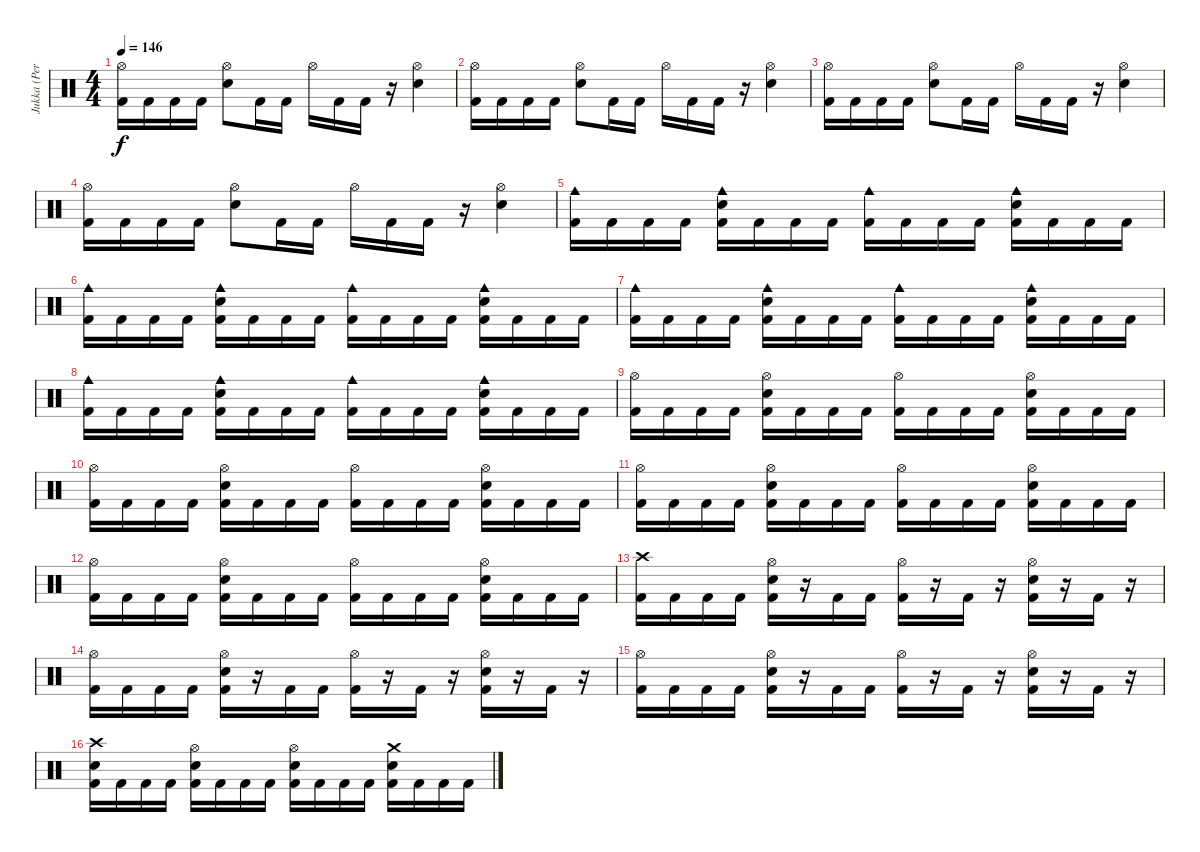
\track ("Jukka (Percussion)" "Jukka (Per") {instrument percussion}
\staff {score}
\articulation defaults
\ts (4 4)
\tempo 146
\clef neutral
\ks c
("Hi-Hat (open)" "Kick (hit) 2").16{dy f} "Kick (hit) 2".16 "Kick (hit) 2".16 "Kick (hit) 2".16 ("Hi-Hat (open)" "Snare (hit) 2").8 "Kick (hit) 2".16 "Kick (hit) 2".16 "Hi-Hat (open)".16 "Kick (hit) 2".16 "Kick (hit) 2".16 r.16 ("Hi-Hat (open)" "Snare (hit) 2").4 |
("Hi-Hat (open)" "Kick (hit) 2").16 "Kick (hit) 2".16 "Kick (hit) 2".16 "Kick (hit) 2".16 ("Hi-Hat (open)" "Snare (hit) 2").8 "Kick (hit) 2".16 "Kick (hit) 2".16 "Hi-Hat (open)".16 "Kick (hit) 2".16 "Kick (hit) 2".16 r.16 ("Hi-Hat (open)" "Snare (hit) 2").4 |
("Hi-Hat (open)" "Kick (hit) 2").16 "Kick (hit) 2".16 "Kick (hit) 2".16 "Kick (hit) 2".16 ("Hi-Hat (open)" "Snare (hit) 2").8 "Kick (hit) 2".16 "Kick (hit) 2".16 "Hi-Hat (open)".16 "Kick (hit) 2".16 "Kick (hit) 2".16 r.16 ("Hi-Hat (open)" "Snare (hit) 2").4 |
("Hi-Hat (open)" "Kick (hit) 2").16 "Kick (hit) 2".16 "Kick (hit) 2".16 "Kick (hit) 2".16 ("Hi-Hat (open)" "Snare (hit) 2").8 "Kick (hit) 2".16 "Kick (hit) 2".16 "Hi-Hat (open)".16 "Kick (hit) 2".16 "Kick (hit) 2".16 r.16 ("Hi-Hat (open)" "Snare (hit) 2").4 |
("Cowbell medium (hit)" "Kick (hit) 2").16 "Kick (hit) 2".16 "Kick (hit) 2".16 "Kick (hit) 2".16 ("Cowbell medium (hit)" "Snare (hit) 2" "Kick (hit) 2").16 "Kick (hit) 2".16 "Kick (hit) 2".16 "Kick (hit) 2".16 ("Cowbell medium (hit)" "Kick (hit) 2").16 "Kick (hit) 2".16 "Kick (hit) 2".16 "Kick (hit) 2".16 ("Cowbell medium (hit)" "Snare (hit) 2" "Kick (hit) 2").16 "Kick (hit) 2".16 "Kick (hit) 2".16 "Kick (hit) 2".16 |
("Cowbell medium (hit)" "Kick (hit) 2").16 "Kick (hit) 2".16 "Kick (hit) 2".16 "Kick (hit) 2".16 ("Cowbell medium (hit)" "Snare (hit) 2" "Kick (hit) 2").16 "Kick (hit) 2".16 "Kick (hit) 2".16 "Kick (hit) 2".16 ("Cowbell medium (hit)" "Kick (hit) 2").16 "Kick (hit) 2".16 "Kick (hit) 2".16 "Kick (hit) 2".16 ("Cowbell medium (hit)" "Snare (hit) 2" "Kick (hit) 2").16 "Kick (hit) 2".16 "Kick (hit) 2".16 "Kick (hit) 2".16 |
("Cowbell medium (hit)" "Kick (hit) 2").16 "Kick (hit) 2".16 "Kick (hit) 2".16 "Kick (hit) 2".16 ("Cowbell medium (hit)" "Snare (hit) 2" "Kick (hit) 2").16 "Kick (hit) 2".16 "Kick (hit) 2".16 "Kick (hit) 2".16 ("Cowbell medium (hit)" "Kick (hit) 2").16 "Kick (hit) 2".16 "Kick (hit) 2".16 "Kick (hit) 2".16 ("Cowbell medium (hit)" "Snare (hit) 2" "Kick (hit) 2").16 "Kick (hit) 2".16 "Kick (hit) 2".16 "Kick (hit) 2".16 |
("Cowbell medium (hit)" "Kick (hit) 2").16 "Kick (hit) 2".16 "Kick (hit) 2".16 "Kick (hit) 2".16 ("Cowbell medium (hit)" "Snare (hit) 2" "Kick (hit) 2").16 "Kick (hit) 2".16 "Kick (hit) 2".16 "Kick (hit) 2".16 ("Cowbell medium (hit)" "Kick (hit) 2").16 "Kick (hit) 2".16 "Kick (hit) 2".16 "Kick (hit) 2".16 ("Cowbell medium (hit)" "Snare (hit) 2" "Kick (hit) 2").16 "Kick (hit) 2".16 "Kick (hit) 2".16 "Kick (hit) 2".16 |
("Hi-Hat (open)" "Kick (hit) 2").16 "Kick (hit) 2".16 "Kick (hit) 2".16 "Kick (hit) 2".16 ("Hi-Hat (open)" "Snare (hit) 2" "Kick (hit) 2").16 "Kick (hit) 2".16 "Kick (hit) 2".16 "Kick (hit) 2".16 ("Hi-Hat (open)" "Kick (hit) 2").16 "Kick (hit) 2".16 "Kick (hit) 2".16 "Kick (hit) 2".16 ("Hi-Hat (open)" "Snare (hit) 2" "Kick (hit) 2").16 "Kick (hit) 2".16 "Kick (hit) 2".16 "Kick (hit) 2".16 |
("Hi-Hat (open)" "Kick (hit) 2").16 "Kick (hit) 2".16 "Kick (hit) 2".16 "Kick (hit) 2".16 ("Hi-Hat (open)" "Snare (hit) 2" "Kick (hit) 2").16 "Kick (hit) 2".16 "Kick (hit) 2".16 "Kick (hit) 2".16 ("Hi-Hat (open)" "Kick (hit) 2").16 "Kick (hit) 2".16 "Kick (hit) 2".16 "Kick (hit) 2".16 ("Hi-Hat (open)" "Snare (hit) 2" "Kick (hit) 2").16 "Kick (hit) 2".16 "Kick (hit) 2".16 "Kick (hit) 2".16 |
("Hi-Hat (open)" "Kick (hit) 2").16 "Kick (hit) 2".16 "Kick (hit) 2".16 "Kick (hit) 2".16 ("Hi-Hat (open)" "Snare (hit) 2" "Kick (hit) 2").16 "Kick (hit) 2".16 "Kick (hit) 2".16 "Kick (hit) 2".16 ("Hi-Hat (open)" "Kick (hit) 2").16 "Kick (hit) 2".16 "Kick (hit) 2".16 "Kick (hit) 2".16 ("Hi-Hat (open)" "Snare (hit) 2" "Kick (hit) 2").16 "Kick (hit) 2".16 "Kick (hit) 2".16 "Kick (hit) 2".16 |
("Hi-Hat (open)" "Kick (hit) 2").16 "Kick (hit) 2".16 "Kick (hit) 2".16 "Kick (hit) 2".16 ("Hi-Hat (open)" "Snare (hit) 2" "Kick (hit) 2").16 "Kick (hit) 2".16 "Kick (hit) 2".16 "Kick (hit) 2".16 ("Hi-Hat (open)" "Kick (hit) 2").16 "Kick (hit) 2".16 "Kick (hit) 2".16 "Kick (hit) 2".16 ("Hi-Hat (open)" "Snare (hit) 2" "Kick (hit) 2").16 "Kick (hit) 2".16 "Kick (hit) 2".16 "Kick (hit) 2".16 |
("Crash high (hit)" "Kick (hit) 2").16 "Kick (hit) 2".16 "Kick (hit) 2".16 "Kick (hit) 2".16 ("Hi-Hat (open)" "Snare (hit) 2" "Kick (hit) 2").16 r.16 "Kick (hit) 2".16 "Kick (hit) 2".16 ("Hi-Hat (open)" "Kick (hit) 2").16 r.16 "Kick (hit) 2".16 r.16 ("Hi-Hat (open)" "Snare (hit) 2" "Kick (hit) 2").16 r.16 "Kick (hit) 2".16 r.16 |
("Hi-Hat (open)" "Kick (hit) 2").16 "Kick (hit) 2".16 "Kick (hit) 2".16 "Kick (hit) 2".16 ("Hi-Hat (open)" "Snare (hit) 2" "Kick (hit) 2").16 r.16 "Kick (hit) 2".16 "Kick (hit) 2".16 ("Hi-Hat (open)" "Kick (hit) 2").16 r.16 "Kick (hit) 2".16 r.16 ("Hi-Hat (open)" "Snare (hit) 2" "Kick (hit) 2").16 r.16 "Kick (hit) 2".16 r.16 |
("Hi-Hat (open)" "Kick (hit) 2").16 "Kick (hit) 2".16 "Kick (hit) 2".16 "Kick (hit) 2".16 ("Hi-Hat (open)" "Snare (hit) 2" "Kick (hit) 2").16 r.16 "Kick (hit) 2".16 "Kick (hit) 2".16 ("Hi-Hat (open)" "Kick (hit) 2").16 r.16 "Kick (hit) 2".16 r.16 ("Hi-Hat (open)" "Snare (hit) 2" "Kick (hit) 2").16 r.16 "Kick (hit) 2".16 r.16 |
("Crash high (hit)" "Snare (hit) 2" "Kick (hit) 2").16 "Kick (hit) 2".16 "Kick (hit) 2".16 "Kick (hit) 2".16 ("Hi-Hat (open)" "Snare (hit) 2" "Kick (hit) 2").16 "Kick (hit) 2".16 "Kick (hit) 2".16 "Kick (hit) 2".16 ("Hi-Hat (open)" "Snare (hit) 2" "Kick (hit) 2").16 "Kick (hit) 2".16 "Kick (hit) 2".16 "Kick (hit) 2".16 ("Crash medium (hit)" "Snare (hit) 2" "Kick (hit) 2").16 "Kick (hit) 2".16 "Kick (hit) 2".16 "Kick (hit) 2".16
